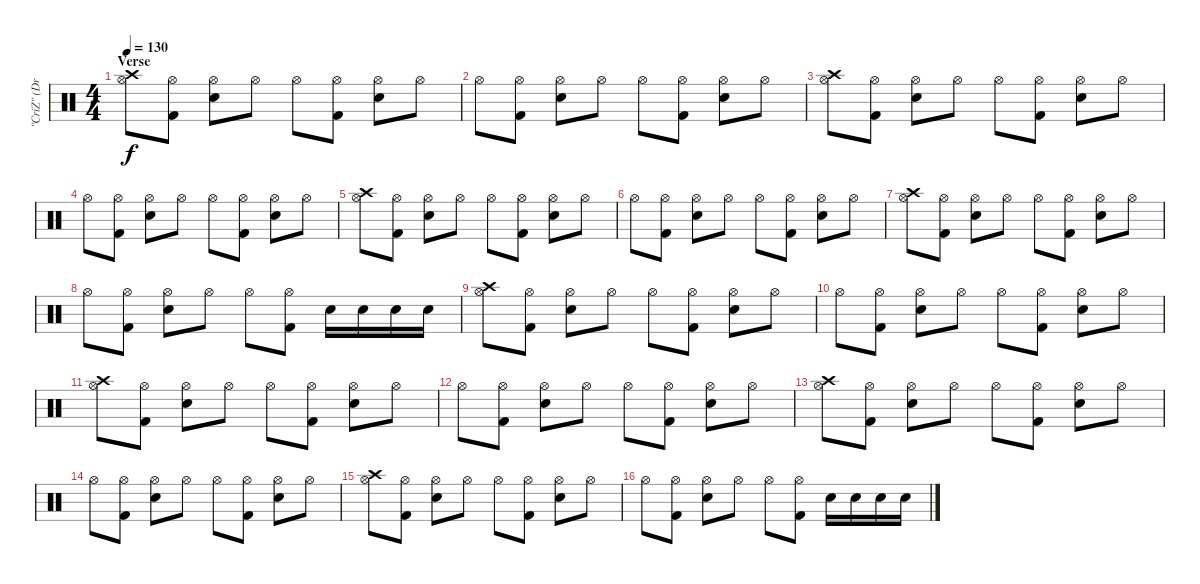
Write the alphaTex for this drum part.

\track ("\"CriZ\" (Drums/Percussion)" "\"CriZ\" (Dr") {instrument percussion}
\staff {score}
\articulation defaults
\ts (4 4)
\section ("" "Verse")
\tempo 130
\clef neutral
\ks c
("Crash high (hit)" "Hi-Hat (open)").8{dy f} ("Hi-Hat (open)" "Kick (hit) 2").8 ("Hi-Hat (open)" "Snare (hit) 2").8 "Hi-Hat (open)".8 "Hi-Hat (open)".8 ("Hi-Hat (open)" "Kick (hit) 2").8 ("Hi-Hat (open)" "Snare (hit) 2").8 "Hi-Hat (open)".8 |
"Hi-Hat (open)".8 ("Hi-Hat (open)" "Kick (hit) 2").8 ("Hi-Hat (open)" "Snare (hit) 2").8 "Hi-Hat (open)".8 "Hi-Hat (open)".8 ("Hi-Hat (open)" "Kick (hit) 2").8 ("Hi-Hat (open)" "Snare (hit) 2").8 "Hi-Hat (open)".8 |
("Crash high (hit)" "Hi-Hat (open)").8 ("Hi-Hat (open)" "Kick (hit) 2").8 ("Hi-Hat (open)" "Snare (hit) 2").8 "Hi-Hat (open)".8 "Hi-Hat (open)".8 ("Hi-Hat (open)" "Kick (hit) 2").8 ("Hi-Hat (open)" "Snare (hit) 2").8 "Hi-Hat (open)".8 |
"Hi-Hat (open)".8 ("Hi-Hat (open)" "Kick (hit) 2").8 ("Hi-Hat (open)" "Snare (hit) 2").8 "Hi-Hat (open)".8 "Hi-Hat (open)".8 ("Hi-Hat (open)" "Kick (hit) 2").8 ("Hi-Hat (open)" "Snare (hit) 2").8 "Hi-Hat (open)".8 |
("Crash high (hit)" "Hi-Hat (open)").8 ("Hi-Hat (open)" "Kick (hit) 2").8 ("Hi-Hat (open)" "Snare (hit) 2").8 "Hi-Hat (open)".8 "Hi-Hat (open)".8 ("Hi-Hat (open)" "Kick (hit) 2").8 ("Hi-Hat (open)" "Snare (hit) 2").8 "Hi-Hat (open)".8 |
"Hi-Hat (open)".8 ("Hi-Hat (open)" "Kick (hit) 2").8 ("Hi-Hat (open)" "Snare (hit) 2").8 "Hi-Hat (open)".8 "Hi-Hat (open)".8 ("Hi-Hat (open)" "Kick (hit) 2").8 ("Hi-Hat (open)" "Snare (hit) 2").8 "Hi-Hat (open)".8 |
("Crash high (hit)" "Hi-Hat (open)").8 ("Hi-Hat (open)" "Kick (hit) 2").8 ("Hi-Hat (open)" "Snare (hit) 2").8 "Hi-Hat (open)".8 "Hi-Hat (open)".8 ("Hi-Hat (open)" "Kick (hit) 2").8 ("Hi-Hat (open)" "Snare (hit) 2").8 "Hi-Hat (open)".8 |
"Hi-Hat (open)".8 ("Hi-Hat (open)" "Kick (hit) 2").8 ("Hi-Hat (open)" "Snare (hit) 2").8 "Hi-Hat (open)".8 "Hi-Hat (open)".8 ("Hi-Hat (open)" "Kick (hit) 2").8 "Snare (hit) 2".16 "Snare (hit) 2".16 "Snare (hit) 2".16 "Snare (hit) 2".16 |
("Crash high (hit)" "Hi-Hat (open)").8 ("Hi-Hat (open)" "Kick (hit) 2").8 ("Hi-Hat (open)" "Snare (hit) 2").8 "Hi-Hat (open)".8 "Hi-Hat (open)".8 ("Hi-Hat (open)" "Kick (hit) 2").8 ("Hi-Hat (open)" "Snare (hit) 2").8 "Hi-Hat (open)".8 |
"Hi-Hat (open)".8 ("Hi-Hat (open)" "Kick (hit) 2").8 ("Hi-Hat (open)" "Snare (hit) 2").8 "Hi-Hat (open)".8 "Hi-Hat (open)".8 ("Hi-Hat (open)" "Kick (hit) 2").8 ("Hi-Hat (open)" "Snare (hit) 2").8 "Hi-Hat (open)".8 |
("Crash high (hit)" "Hi-Hat (open)").8 ("Hi-Hat (open)" "Kick (hit) 2").8 ("Hi-Hat (open)" "Snare (hit) 2").8 "Hi-Hat (open)".8 "Hi-Hat (open)".8 ("Hi-Hat (open)" "Kick (hit) 2").8 ("Hi-Hat (open)" "Snare (hit) 2").8 "Hi-Hat (open)".8 |
"Hi-Hat (open)".8 ("Hi-Hat (open)" "Kick (hit) 2").8 ("Hi-Hat (open)" "Snare (hit) 2").8 "Hi-Hat (open)".8 "Hi-Hat (open)".8 ("Hi-Hat (open)" "Kick (hit) 2").8 ("Hi-Hat (open)" "Snare (hit) 2").8 "Hi-Hat (open)".8 |
("Crash high (hit)" "Hi-Hat (open)").8 ("Hi-Hat (open)" "Kick (hit) 2").8 ("Hi-Hat (open)" "Snare (hit) 2").8 "Hi-Hat (open)".8 "Hi-Hat (open)".8 ("Hi-Hat (open)" "Kick (hit) 2").8 ("Hi-Hat (open)" "Snare (hit) 2").8 "Hi-Hat (open)".8 |
"Hi-Hat (open)".8 ("Hi-Hat (open)" "Kick (hit) 2").8 ("Hi-Hat (open)" "Snare (hit) 2").8 "Hi-Hat (open)".8 "Hi-Hat (open)".8 ("Hi-Hat (open)" "Kick (hit) 2").8 ("Hi-Hat (open)" "Snare (hit) 2").8 "Hi-Hat (open)".8 |
("Crash high (hit)" "Hi-Hat (open)").8 ("Hi-Hat (open)" "Kick (hit) 2").8 ("Hi-Hat (open)" "Snare (hit) 2").8 "Hi-Hat (open)".8 "Hi-Hat (open)".8 ("Hi-Hat (open)" "Kick (hit) 2").8 ("Hi-Hat (open)" "Snare (hit) 2").8 "Hi-Hat (open)".8 |
"Hi-Hat (open)".8 ("Hi-Hat (open)" "Kick (hit) 2").8 ("Hi-Hat (open)" "Snare (hit) 2").8 "Hi-Hat (open)".8 "Hi-Hat (open)".8 ("Hi-Hat (open)" "Kick (hit) 2").8 "Snare (hit) 2".16 "Snare (hit) 2".16 "Snare (hit) 2".16 "Snare (hit) 2".16
